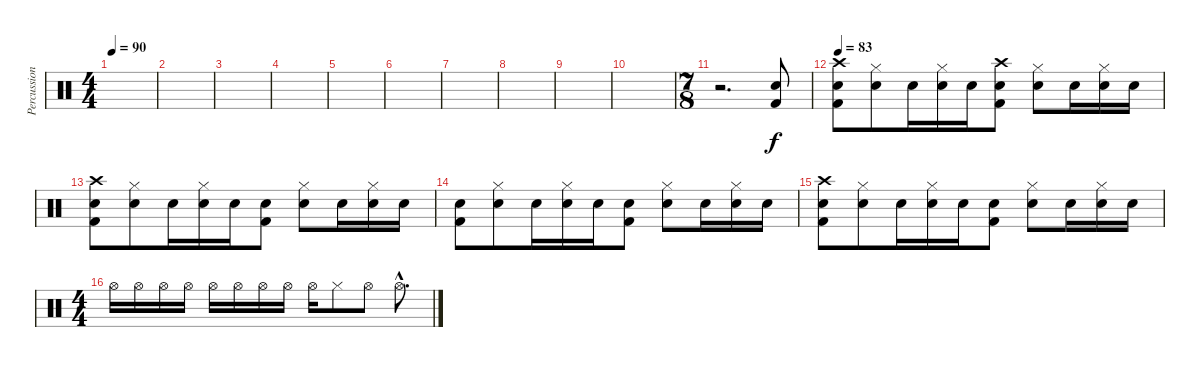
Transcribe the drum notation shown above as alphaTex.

\track ("Percussion" "Percussion") {instrument percussion}
\staff {score}
\articulation defaults
\ts (4 4)
\tempo 90
\clef neutral
\ks c
|
|
|
|
|
|
|
|
|
|
\ts (7 8)
r.2{d} ("Electric Snare (hit)" "Kick (hit) 2").8 |
\tempo 83
("Crash high (hit)" "Electric Snare (hit)" "Kick (hit) 2").8 ("Hi-Hat (closed)" "Electric Snare (hit)").8 "Electric Snare (hit)".16 ("Hi-Hat (closed)" "Electric Snare (hit)").16 "Electric Snare (hit)".16 ("Crash high (hit)" "Electric Snare (hit)" "Kick (hit) 2").8 ("Hi-Hat (closed)" "Electric Snare (hit)").8 "Electric Snare (hit)".16 ("Hi-Hat (closed)" "Electric Snare (hit)").16 "Electric Snare (hit)".16 |
("Crash high (hit)" "Electric Snare (hit)" "Kick (hit) 2").8 ("Hi-Hat (closed)" "Electric Snare (hit)").8 "Electric Snare (hit)".16 ("Hi-Hat (closed)" "Electric Snare (hit)").16 "Electric Snare (hit)".16 ("Electric Snare (hit)" "Kick (hit) 2").8 ("Hi-Hat (closed)" "Electric Snare (hit)").8 "Electric Snare (hit)".16 ("Hi-Hat (closed)" "Electric Snare (hit)").16 "Electric Snare (hit)".16 |
("Electric Snare (hit)" "Kick (hit) 2").8 ("Hi-Hat (closed)" "Electric Snare (hit)").8 "Electric Snare (hit)".16 ("Hi-Hat (closed)" "Electric Snare (hit)").16 "Electric Snare (hit)".16 ("Electric Snare (hit)" "Kick (hit) 2").8 ("Hi-Hat (closed)" "Electric Snare (hit)").8 "Electric Snare (hit)".16 ("Hi-Hat (closed)" "Electric Snare (hit)").16 "Electric Snare (hit)".16 |
("Crash high (hit)" "Electric Snare (hit)" "Kick (hit) 2").8 ("Hi-Hat (closed)" "Electric Snare (hit)").8 "Electric Snare (hit)".16 ("Hi-Hat (closed)" "Electric Snare (hit)").16 "Electric Snare (hit)".16 ("Electric Snare (hit)" "Kick (hit) 2").8 ("Hi-Hat (closed)" "Electric Snare (hit)").8 "Electric Snare (hit)".16 ("Hi-Hat (closed)" "Electric Snare (hit)").16 "Electric Snare (hit)".16 |
\ts (4 4)
"Hi-Hat (open)".16 "Hi-Hat (open)".16 "Hi-Hat (open)".16 "Hi-Hat (open)".16 "Hi-Hat (open)".16 "Hi-Hat (open)".16 "Hi-Hat (open)".16 "Hi-Hat (open)".16 "Hi-Hat (open)".16 "Hi-Hat (closed)".8 "Hi-Hat (open)".8 "Hi-Hat (open)"{hac}.8{d}
